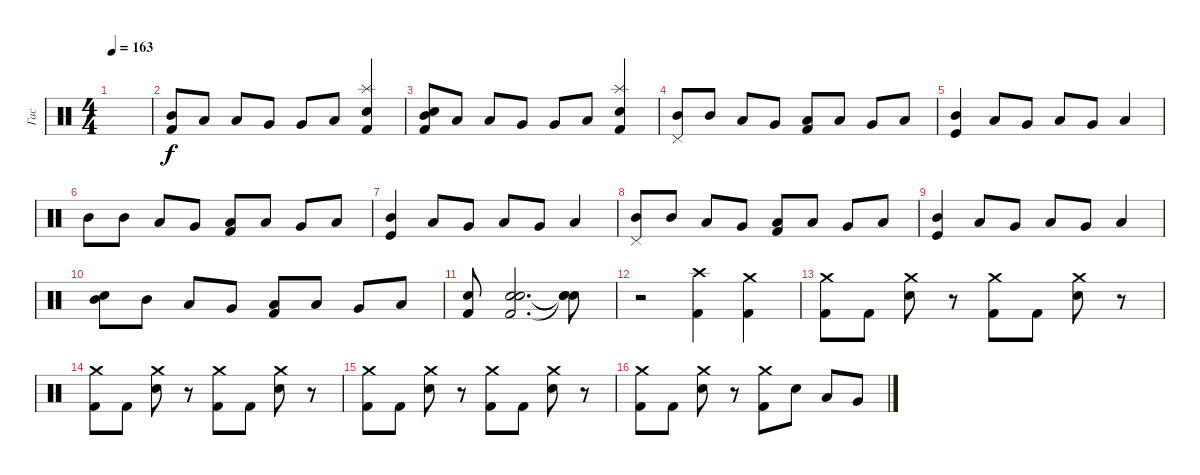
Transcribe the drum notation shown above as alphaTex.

\track ("Гас" "Гас") {instrument percussion}
\staff {score}
\articulation defaults
\ts (4 4)
\tempo 163
\clef neutral
\ks c
|
("Kick (hit) 2" "Mid Tom (hit)").8 "Low Tom (hit)".8 "Low Tom (hit)".8 "Very Low Tom (hit)".8 "Very Low Tom (hit)".8 "Low Floor Tom (hit)".8 ("Splash (hit)" "Electric Snare (hit)" "Kick (hit) 2").4 |
("Electric Snare (hit)" "Kick (hit) 2" "Mid Tom (hit)").8 "Low Tom (hit)".8 "Low Tom (hit)".8 "Very Low Tom (hit)".8 "Very Low Tom (hit)".8 "Low Floor Tom (hit)".8 ("Splash (hit)" "Electric Snare (hit)" "Kick (hit) 2").4 |
("Pedal Hi-Hat (hit)" "Mid Tom (hit)").8 "Mid Tom (hit)".8 "Low Tom (hit)".8 "Very Low Tom (hit)".8 ("Low Floor Tom (hit)" "Kick (hit) 2").8 "Low Floor Tom (hit)".8 "Very Low Tom (hit)".8 "Low Tom (hit)".8 |
("Mid Tom (hit)" "Kick (hit)").4 "Low Tom (hit)".8 "Very Low Tom (hit)".8 "Low Floor Tom (hit)".8 "Very Low Tom (hit)".8 "Low Floor Tom (hit)".4 |
"Mid Tom (hit)".8 "Mid Tom (hit)".8 "Low Tom (hit)".8 "Very Low Tom (hit)".8 ("Low Floor Tom (hit)" "Kick (hit) 2").8 "Low Floor Tom (hit)".8 "Very Low Tom (hit)".8 "Low Tom (hit)".8 |
("Mid Tom (hit)" "Kick (hit)").4 "Low Tom (hit)".8 "Very Low Tom (hit)".8 "Low Floor Tom (hit)".8 "Very Low Tom (hit)".8 "Low Floor Tom (hit)".4 |
("Pedal Hi-Hat (hit)" "Mid Tom (hit)").8 "Mid Tom (hit)".8 "Low Tom (hit)".8 "Very Low Tom (hit)".8 ("Low Floor Tom (hit)" "Kick (hit) 2").8 "Low Floor Tom (hit)".8 "Very Low Tom (hit)".8 "Low Tom (hit)".8 |
("Mid Tom (hit)" "Kick (hit)").4 "Low Tom (hit)".8 "Very Low Tom (hit)".8 "Low Floor Tom (hit)".8 "Very Low Tom (hit)".8 "Low Floor Tom (hit)".4 |
("Electric Snare (hit)" "Mid Tom (hit)").8 "Mid Tom (hit)".8 "Low Tom (hit)".8 "Very Low Tom (hit)".8 ("Low Floor Tom (hit)" "Kick (hit) 2").8 "Low Floor Tom (hit)".8 "Very Low Tom (hit)".8 "Low Tom (hit)".8 |
("Electric Snare (hit)" "Kick (hit) 2").8 ("Electric Snare (hit)" "Snare (hit) 2" "Kick (hit) 2").2{d} ("Snare (hit)"{t} "Snare (hit)"{t} "Snare (hit)"{t}).8 |
r.2 ("Crash high (hit)" "Kick (hit) 2").4 ("Crash medium (hit)" "Kick (hit) 2").4 |
("Crash medium (hit)" "Kick (hit) 2").8 "Kick (hit) 2".8 ("Crash medium (hit)" "Electric Snare (hit)").8 r.8 ("Crash medium (hit)" "Kick (hit) 2").8 "Kick (hit) 2".8 ("Crash medium (hit)" "Electric Snare (hit)").8 r.8 |
("Crash medium (hit)" "Kick (hit) 2").8 "Kick (hit) 2".8 ("Crash medium (hit)" "Electric Snare (hit)").8 r.8 ("Crash medium (hit)" "Kick (hit) 2").8 "Kick (hit) 2".8 ("Crash medium (hit)" "Electric Snare (hit)").8 r.8 |
("Crash medium (hit)" "Kick (hit) 2").8 "Kick (hit) 2".8 ("Crash medium (hit)" "Electric Snare (hit)").8 r.8 ("Crash medium (hit)" "Kick (hit) 2").8 "Kick (hit) 2".8 ("Crash medium (hit)" "Electric Snare (hit)").8 r.8 |
("Crash medium (hit)" "Kick (hit) 2").8 "Kick (hit) 2".8 ("Crash medium (hit)" "Electric Snare (hit)").8 r.8 ("Crash medium (hit)" "Kick (hit) 2").8 "Electric Snare (hit)".8 "Low Tom (hit)".8 "Very Low Tom (hit)".8
